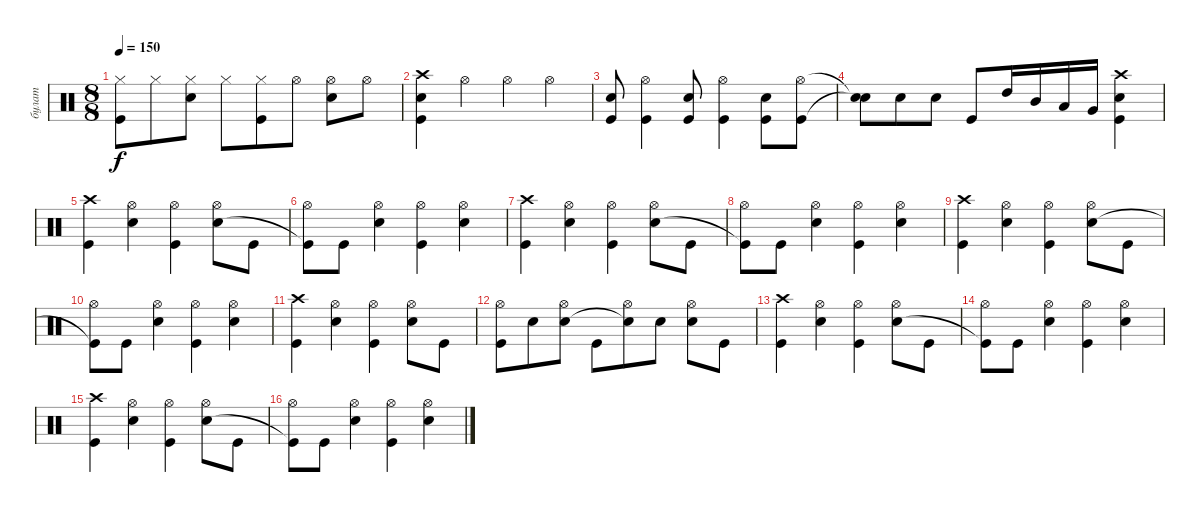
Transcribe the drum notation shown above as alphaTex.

\track ("булат" "булат") {instrument percussion}
\staff {score}
\articulation defaults
\ts (8 8)
\tempo 150
\clef neutral
\ks c
("Hi-Hat (closed)" "Kick (hit)").8{dy f} "Hi-Hat (closed)".8 ("Hi-Hat (closed)" "Snare (hit) 2").8 "Hi-Hat (closed)".8 ("Hi-Hat (closed)" "Kick (hit)").8 "Hi-Hat (open)".8 ("Hi-Hat (open)" "Snare (hit) 2").8 "Hi-Hat (open)".8 |
("Crash high (hit)" "Kick (hit)" "Snare (hit) 2").4 "Hi-Hat (open)".4 "Hi-Hat (open)".4 "Hi-Hat (open)".4 |
("Kick (hit)" "Snare (hit) 2").8 ("Hi-Hat (open)" "Kick (hit)").4 ("Kick (hit)" "Snare (hit) 2").8 ("Hi-Hat (open)" "Kick (hit)").4 ("Kick (hit)" "Snare (hit) 2").8 ("Hi-Hat (open)" "Kick (hit)").8 |
("Snare (hit)"{t} "Snare (hit)"{t}).8 "Snare (hit) 2".8 "Snare (hit) 2".8 "Kick (hit)".8 "High Tom (hit)".16 "Mid Tom (hit)".16 "Low Tom (hit)".16 "Very Low Tom (hit)".16 ("Crash high (hit)" "Kick (hit)" "Snare (hit) 2").4 |
("Crash high (hit)" "Kick (hit)").4 ("Hi-Hat (open)" "Snare (hit) 2").4 ("Hi-Hat (open)" "Kick (hit)").4 ("Hi-Hat (open)" "Snare (hit) 2").8 "Kick (hit)".8 |
("Hi-Hat (open)" "Kick (hit)"{t}).8 "Kick (hit)".8 ("Hi-Hat (open)" "Snare (hit) 2").4 ("Hi-Hat (open)" "Kick (hit)").4 ("Hi-Hat (open)" "Snare (hit) 2").4 |
("Crash high (hit)" "Kick (hit)").4 ("Hi-Hat (open)" "Snare (hit) 2").4 ("Hi-Hat (open)" "Kick (hit)").4 ("Hi-Hat (open)" "Snare (hit) 2").8 "Kick (hit)".8 |
("Hi-Hat (open)" "Kick (hit)"{t}).8 "Kick (hit)".8 ("Hi-Hat (open)" "Snare (hit) 2").4 ("Hi-Hat (open)" "Kick (hit)").4 ("Hi-Hat (open)" "Snare (hit) 2").4 |
("Crash high (hit)" "Kick (hit)").4 ("Hi-Hat (open)" "Snare (hit) 2").4 ("Hi-Hat (open)" "Kick (hit)").4 ("Hi-Hat (open)" "Snare (hit) 2").8 "Kick (hit)".8 |
("Hi-Hat (open)" "Kick (hit)"{t}).8 "Kick (hit)".8 ("Hi-Hat (open)" "Snare (hit) 2").4 ("Hi-Hat (open)" "Kick (hit)").4 ("Hi-Hat (open)" "Snare (hit) 2").4 |
("Crash high (hit)" "Kick (hit)").4 ("Hi-Hat (open)" "Snare (hit) 2").4 ("Hi-Hat (open)" "Kick (hit)").4 ("Hi-Hat (open)" "Snare (hit) 2").8 "Kick (hit)".8 |
("Hi-Hat (open)" "Kick (hit)").8 "Snare (hit) 2".8 ("Hi-Hat (open)" "Snare (hit) 2").8 "Kick (hit)".8 ("Hi-Hat (open)" "Snare (hit)"{t}).8 "Snare (hit) 2".8 ("Hi-Hat (open)" "Snare (hit) 2").8 "Kick (hit)".8 |
("Crash high (hit)" "Kick (hit)").4 ("Hi-Hat (open)" "Snare (hit) 2").4 ("Hi-Hat (open)" "Kick (hit)").4 ("Hi-Hat (open)" "Snare (hit) 2").8 "Kick (hit)".8 |
("Hi-Hat (open)" "Kick (hit)"{t}).8 "Kick (hit)".8 ("Hi-Hat (open)" "Snare (hit) 2").4 ("Hi-Hat (open)" "Kick (hit)").4 ("Hi-Hat (open)" "Snare (hit) 2").4 |
("Crash high (hit)" "Kick (hit)").4 ("Hi-Hat (open)" "Snare (hit) 2").4 ("Hi-Hat (open)" "Kick (hit)").4 ("Hi-Hat (open)" "Snare (hit) 2").8 "Kick (hit)".8 |
("Hi-Hat (open)" "Kick (hit)"{t}).8 "Kick (hit)".8 ("Hi-Hat (open)" "Snare (hit) 2").4 ("Hi-Hat (open)" "Kick (hit)").4 ("Hi-Hat (open)" "Snare (hit) 2").4
